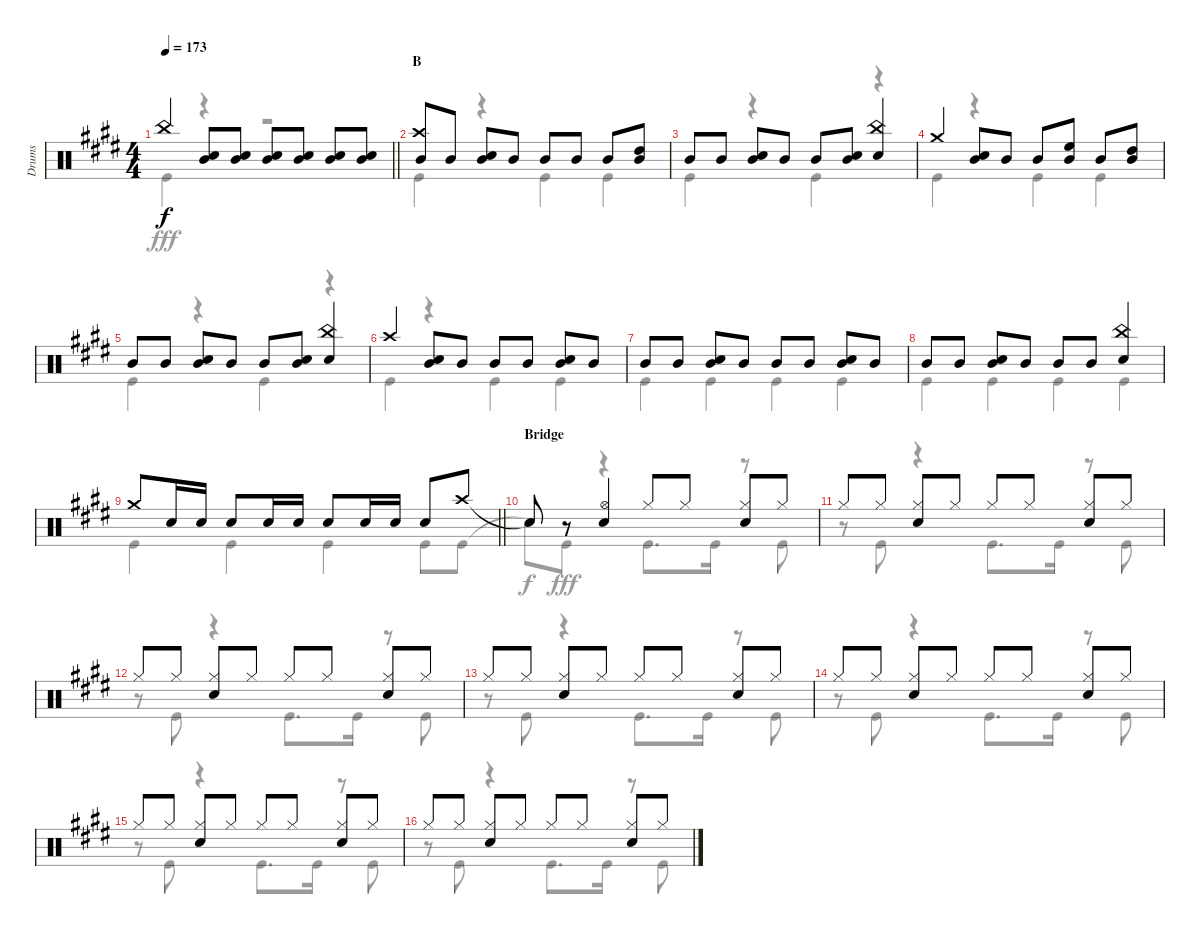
\track ("Drums" "Drums") {instrument percussion}
\staff {score}
\articulation defaults
\voice
\ts (4 4)
\tempo 173
\clef neutral
\barLineRight lightlight
\ks e "China (hit)".4{dy f}
("Mid Tom (hit)" "Snare (hit) 2").8 ("Mid Tom (hit)" "Snare (hit) 2").8 ("Mid Tom (hit)" "Snare (hit) 2").8 ("Mid Tom (hit)" "Snare (hit) 2").8 ("Mid Tom (hit)" "Snare (hit) 2").8 ("Mid Tom (hit)" "Snare (hit) 2").8 |
\section ("" "B")
("Crash high (hit)" "Mid Tom (hit)").8 "Mid Tom (hit)".8 ("Mid Tom (hit)" "Snare (hit) 2").8 "Mid Tom (hit)".8 "Mid Tom (hit)".8 "Mid Tom (hit)".8 "Mid Tom (hit)".8 ("High Tom (hit)" "Mid Tom (hit)").8 |
"Mid Tom (hit)".8 "Mid Tom (hit)".8 ("Mid Tom (hit)" "Snare (hit) 2").8 "Mid Tom (hit)".8 "Mid Tom (hit)".8 ("Mid Tom (hit)" "Snare (hit) 2").8 ("China (hit)" "Snare (hit) 2").4 |
"Crash medium (hit)".4 ("Mid Tom (hit)" "Snare (hit) 2").8 "Mid Tom (hit)".8 "Mid Tom (hit)".8 ("High Floor Tom (hit)" "Mid Tom (hit)").8 "Mid Tom (hit)".8 ("High Tom (hit)" "Mid Tom (hit)").8 |
"Mid Tom (hit)".8 "Mid Tom (hit)".8 ("Mid Tom (hit)" "Snare (hit) 2").8 "Mid Tom (hit)".8 "Mid Tom (hit)".8 ("Mid Tom (hit)" "Snare (hit) 2").8 ("China (hit)" "Snare (hit) 2").4 |
"Crash high (hit)".4 ("Mid Tom (hit)" "Snare (hit) 2").8 "Mid Tom (hit)".8 "Mid Tom (hit)".8 "Mid Tom (hit)".8 ("Mid Tom (hit)" "Snare (hit) 2").8 "Mid Tom (hit)".8 |
"Mid Tom (hit)".8 "Mid Tom (hit)".8 ("Mid Tom (hit)" "Snare (hit) 2").8 "Mid Tom (hit)".8 "Mid Tom (hit)".8 "Mid Tom (hit)".8 ("Mid Tom (hit)" "Snare (hit) 2").8 "Mid Tom (hit)".8 |
"Mid Tom (hit)".8 "Mid Tom (hit)".8 ("Mid Tom (hit)" "Snare (hit) 2").8 "Mid Tom (hit)".8 "Mid Tom (hit)".8 "Mid Tom (hit)".8 ("China (hit)" "Snare (hit) 2").4 |
\barLineRight lightlight "Crash medium (hit)".8 "Snare (hit) 2".16 "Snare (hit) 2".16 "Snare (hit) 2".8 "Snare (hit) 2".16 "Snare (hit) 2".16 "Snare (hit) 2".8 "Snare (hit) 2".16 "Snare (hit) 2".16 "Snare (hit) 2".8 "Crash high (hit)".8
|
\section ("" "Bridge")
"Snare (hit)"{t}.8 r.8 ("Hi-Hat (open)" "Snare (hit) 2").4 "Hi-Hat (closed)".8 "Hi-Hat (closed)".8 ("Hi-Hat (closed)" "Snare (hit) 2").8 "Hi-Hat (closed)".8 |
"Hi-Hat (closed)".8 "Hi-Hat (closed)".8 ("Hi-Hat (closed)" "Snare (hit) 2").8 "Hi-Hat (closed)".8 "Hi-Hat (closed)".8 "Hi-Hat (closed)".8 ("Hi-Hat (closed)" "Snare (hit) 2").8 "Hi-Hat (closed)".8 |
"Hi-Hat (closed)".8 "Hi-Hat (closed)".8 ("Hi-Hat (closed)" "Snare (hit) 2").8 "Hi-Hat (closed)".8 "Hi-Hat (closed)".8 "Hi-Hat (closed)".8 ("Hi-Hat (closed)" "Snare (hit) 2").8 "Hi-Hat (closed)".8 |
"Hi-Hat (closed)".8 "Hi-Hat (closed)".8 ("Hi-Hat (closed)" "Snare (hit) 2").8 "Hi-Hat (closed)".8 "Hi-Hat (closed)".8 "Hi-Hat (closed)".8 ("Hi-Hat (closed)" "Snare (hit) 2").8 "Hi-Hat (closed)".8 |
"Hi-Hat (closed)".8 "Hi-Hat (closed)".8 ("Hi-Hat (closed)" "Snare (hit) 2").8 "Hi-Hat (closed)".8 "Hi-Hat (closed)".8 "Hi-Hat (closed)".8 ("Hi-Hat (closed)" "Snare (hit) 2").8 "Hi-Hat (closed)".8 |
"Hi-Hat (closed)".8 "Hi-Hat (closed)".8 ("Hi-Hat (closed)" "Snare (hit) 2").8 "Hi-Hat (closed)".8 "Hi-Hat (closed)".8 "Hi-Hat (closed)".8 ("Hi-Hat (closed)" "Snare (hit) 2").8 "Hi-Hat (closed)".8 |
"Hi-Hat (closed)".8 "Hi-Hat (closed)".8 ("Hi-Hat (closed)" "Snare (hit) 2").8 "Hi-Hat (closed)".8 "Hi-Hat (closed)".8 "Hi-Hat (closed)".8 ("Hi-Hat (closed)" "Snare (hit) 2").8 "Hi-Hat (closed)".8
\voice
\clef neutral
\ottava regular
\simile none
\barLineRight lightlight
\ks e "Kick (hit)".4{dy fff}
r.4 r.2 |
"Kick (hit)".4 r.4 "Kick (hit)".4 "Kick (hit)".4 |
"Kick (hit)".4 r.4 "Kick (hit)".4 r.4 |
"Kick (hit)".4 r.4 "Kick (hit)".4 "Kick (hit)".4 |
"Kick (hit)".4 r.4 "Kick (hit)".4 r.4 |
"Kick (hit)".4 r.4 "Kick (hit)".4 "Kick (hit)".4 |
"Kick (hit)".4 "Kick (hit)".4 "Kick (hit)".4 "Kick (hit)".4 |
"Kick (hit)".4 "Kick (hit)".4 "Kick (hit)".4 "Kick (hit)".4 |
\barLineRight lightlight "Kick (hit)".4 "Kick (hit)".4 "Kick (hit)".4 "Kick (hit)".8 "Kick (hit)".8
|
"Snare (hit)"{t}.8{dy f} "Kick (hit)".8{dy fff} r.4 "Kick (hit)".8{d} "Kick (hit)".16 r.8 "Kick (hit)".8 |
r.8 "Kick (hit)".8 r.4 "Kick (hit)".8{d} "Kick (hit)".16 r.8 "Kick (hit)".8 |
r.8 "Kick (hit)".8 r.4 "Kick (hit)".8{d} "Kick (hit)".16 r.8 "Kick (hit)".8 |
r.8 "Kick (hit)".8 r.4 "Kick (hit)".8{d} "Kick (hit)".16 r.8 "Kick (hit)".8 |
r.8 "Kick (hit)".8 r.4 "Kick (hit)".8{d} "Kick (hit)".16 r.8 "Kick (hit)".8 |
r.8 "Kick (hit)".8 r.4 "Kick (hit)".8{d} "Kick (hit)".16 r.8 "Kick (hit)".8 |
r.8 "Kick (hit)".8 r.4 "Kick (hit)".8{d} "Kick (hit)".16 r.8 "Kick (hit)".8
